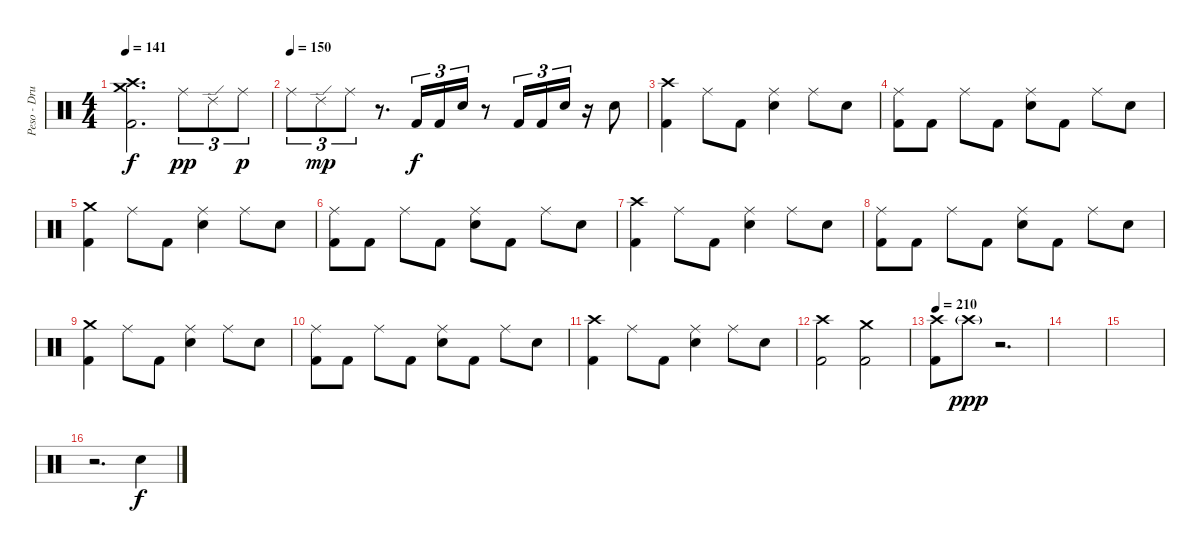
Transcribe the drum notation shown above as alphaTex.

\track ("Peso - Drums" "Peso - Dru") {instrument percussion}
\staff {score}
\articulation defaults
\ts (4 4)
\tempo 141
\clef neutral
\ks c
("Crash medium (hit)" "Crash high (hit)" "Kick (hit) 2").2{d dy f} "Ride (middle)".8{tu (3 2) dy pp} "Ride (edge) 2".8{tu (3 2)} "Ride (middle)".8{tu (3 2) dy p} |
\tempo (150)
"Ride (middle)".8{tu (3 2)} "Ride (edge) 2".8{tu (3 2) dy mp} "Ride (middle)".8{tu (3 2)} r.8{d} "Kick (hit) 2".16{tu (3 2) dy f} "Kick (hit) 2".16{tu (3 2)} "Electric Snare (hit)".16{tu (3 2)} r.8 "Kick (hit) 2".16{tu (3 2)} "Kick (hit) 2".16{tu (3 2)} "Electric Snare (hit)".16{tu (3 2)} r.16 "Electric Snare (hit)".8 |
("Crash high (hit)" "Kick (hit) 2").4 "Ride (middle)".8 "Kick (hit) 2".8 ("Ride (middle)" "Electric Snare (hit)").4 "Ride (middle)".8 "Electric Snare (hit)".8 |
("Ride (middle)" "Kick (hit) 2").8 "Kick (hit) 2".8 "Ride (middle)".8 "Kick (hit) 2".8 ("Ride (middle)" "Electric Snare (hit)").8 "Kick (hit) 2".8 "Ride (middle)".8 "Electric Snare (hit)".8 |
("Crash medium (hit)" "Kick (hit) 2").4 "Ride (middle)".8 "Kick (hit) 2".8 ("Ride (middle)" "Electric Snare (hit)").4 "Ride (middle)".8 "Electric Snare (hit)".8 |
("Ride (middle)" "Kick (hit) 2").8 "Kick (hit) 2".8 "Ride (middle)".8 "Kick (hit) 2".8 ("Ride (middle)" "Electric Snare (hit)").8 "Kick (hit) 2".8 "Ride (middle)".8 "Electric Snare (hit)".8 |
("Crash high (hit)" "Kick (hit) 2").4 "Ride (middle)".8 "Kick (hit) 2".8 ("Ride (middle)" "Electric Snare (hit)").4 "Ride (middle)".8 "Electric Snare (hit)".8 |
("Ride (middle)" "Kick (hit) 2").8 "Kick (hit) 2".8 "Ride (middle)".8 "Kick (hit) 2".8 ("Ride (middle)" "Electric Snare (hit)").8 "Kick (hit) 2".8 "Ride (middle)".8 "Electric Snare (hit)".8 |
("Crash medium (hit)" "Kick (hit) 2").4 "Ride (middle)".8 "Kick (hit) 2".8 ("Ride (middle)" "Electric Snare (hit)").4 "Ride (middle)".8 "Electric Snare (hit)".8 |
("Ride (middle)" "Kick (hit) 2").8 "Kick (hit) 2".8 "Ride (middle)".8 "Kick (hit) 2".8 ("Ride (middle)" "Electric Snare (hit)").8 "Kick (hit) 2".8 "Ride (middle)".8 "Electric Snare (hit)".8 |
("Crash high (hit)" "Kick (hit) 2").4 "Ride (middle)".8 "Kick (hit) 2".8 ("Ride (middle)" "Electric Snare (hit)").4 "Ride (middle)".8 "Electric Snare (hit)".8 |
("Crash high (hit)" "Kick (hit) 2").2 ("Crash medium (hit)" "Kick (hit) 2").2 |
\tempo 210
("Crash high (hit)" "Kick (hit) 2").8 "Crash high (hit)"{g}.8{dy ppp} r.2{d} |
|
|
r.2{d} "Electric Snare (hit)".4{dy f}
